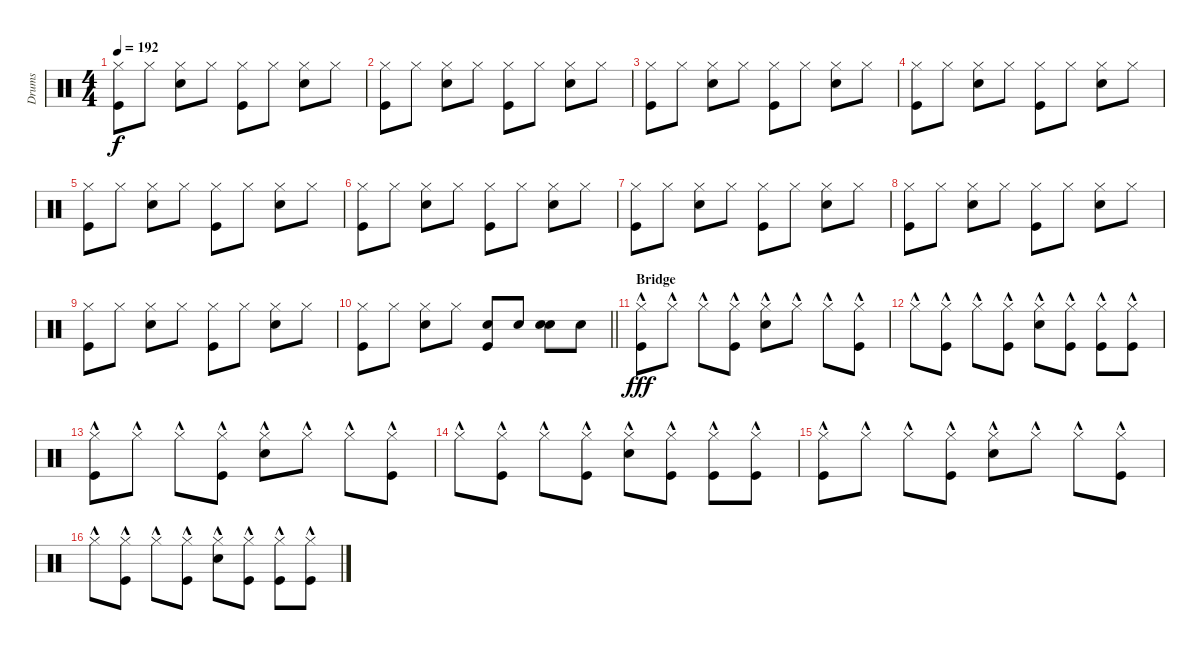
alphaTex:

\track ("Drums" "Drums") {instrument percussion}
\staff {score}
\articulation defaults
\ts (4 4)
\tempo 192
\clef neutral
\ks c
("Hi-Hat (closed)" "Kick (hit)").8{dy f} "Hi-Hat (closed)".8 ("Hi-Hat (closed)" "Snare (hit) 2").8 "Hi-Hat (closed)".8 ("Hi-Hat (closed)" "Kick (hit)").8 "Hi-Hat (closed)".8 ("Hi-Hat (closed)" "Snare (hit) 2").8 "Hi-Hat (closed)".8 |
("Hi-Hat (closed)" "Kick (hit)").8 "Hi-Hat (closed)".8 ("Hi-Hat (closed)" "Snare (hit) 2").8 "Hi-Hat (closed)".8 ("Hi-Hat (closed)" "Kick (hit)").8 "Hi-Hat (closed)".8 ("Hi-Hat (closed)" "Snare (hit) 2").8 "Hi-Hat (closed)".8 |
("Hi-Hat (closed)" "Kick (hit)").8 "Hi-Hat (closed)".8 ("Hi-Hat (closed)" "Snare (hit) 2").8 "Hi-Hat (closed)".8 ("Hi-Hat (closed)" "Kick (hit)").8 "Hi-Hat (closed)".8 ("Hi-Hat (closed)" "Snare (hit) 2").8 "Hi-Hat (closed)".8 |
("Hi-Hat (closed)" "Kick (hit)").8 "Hi-Hat (closed)".8 ("Hi-Hat (closed)" "Snare (hit) 2").8 "Hi-Hat (closed)".8 ("Hi-Hat (closed)" "Kick (hit)").8 "Hi-Hat (closed)".8 ("Hi-Hat (closed)" "Snare (hit) 2").8 "Hi-Hat (closed)".8 |
("Hi-Hat (closed)" "Kick (hit)").8 "Hi-Hat (closed)".8 ("Hi-Hat (closed)" "Snare (hit) 2").8 "Hi-Hat (closed)".8 ("Hi-Hat (closed)" "Kick (hit)").8 "Hi-Hat (closed)".8 ("Hi-Hat (closed)" "Snare (hit) 2").8 "Hi-Hat (closed)".8 |
("Hi-Hat (closed)" "Kick (hit)").8 "Hi-Hat (closed)".8 ("Hi-Hat (closed)" "Snare (hit) 2").8 "Hi-Hat (closed)".8 ("Hi-Hat (closed)" "Kick (hit)").8 "Hi-Hat (closed)".8 ("Hi-Hat (closed)" "Snare (hit) 2").8 "Hi-Hat (closed)".8 |
("Hi-Hat (closed)" "Kick (hit)").8 "Hi-Hat (closed)".8 ("Hi-Hat (closed)" "Snare (hit) 2").8 "Hi-Hat (closed)".8 ("Hi-Hat (closed)" "Kick (hit)").8 "Hi-Hat (closed)".8 ("Hi-Hat (closed)" "Snare (hit) 2").8 "Hi-Hat (closed)".8 |
("Hi-Hat (closed)" "Kick (hit)").8 "Hi-Hat (closed)".8 ("Hi-Hat (closed)" "Snare (hit) 2").8 "Hi-Hat (closed)".8 ("Hi-Hat (closed)" "Kick (hit)").8 "Hi-Hat (closed)".8 ("Hi-Hat (closed)" "Snare (hit) 2").8 "Hi-Hat (closed)".8 |
("Hi-Hat (closed)" "Kick (hit)").8 "Hi-Hat (closed)".8 ("Hi-Hat (closed)" "Snare (hit) 2").8 "Hi-Hat (closed)".8 ("Hi-Hat (closed)" "Kick (hit)").8 "Hi-Hat (closed)".8 ("Hi-Hat (closed)" "Snare (hit) 2").8 "Hi-Hat (closed)".8 |
\barLineRight lightlight
("Hi-Hat (closed)" "Kick (hit)").8 "Hi-Hat (closed)".8 ("Hi-Hat (closed)" "Snare (hit) 2").8 "Hi-Hat (closed)".8 ("Snare (hit) 2" "Kick (hit)").8 "Snare (hit) 2".8 ("Snare (hit) 2" "Snare (hit) 2").8 "Snare (hit) 2".8 |
\section ("" "Bridge")
("Kick (hit)"{hac} "Hi-Hat (closed)"{hac}).8{dy fff} "Hi-Hat (closed)"{hac}.8 "Hi-Hat (closed)"{hac}.8 ("Kick (hit)"{hac} "Hi-Hat (closed)"{hac}).8 ("Snare (hit) 2"{hac} "Hi-Hat (closed)"{hac}).8 "Hi-Hat (closed)"{hac}.8 "Hi-Hat (closed)"{hac}.8 ("Kick (hit)"{hac} "Hi-Hat (closed)"{hac}).8 |
"Hi-Hat (closed)"{hac}.8 ("Kick (hit)"{hac} "Hi-Hat (closed)"{hac}).8 "Hi-Hat (closed)"{hac}.8 ("Kick (hit)"{hac} "Hi-Hat (closed)"{hac}).8 ("Snare (hit) 2"{hac} "Hi-Hat (closed)"{hac}).8 ("Kick (hit)"{hac} "Hi-Hat (closed)"{hac}).8 ("Kick (hit)" "Hi-Hat (closed)"{hac}).8 ("Kick (hit)" "Hi-Hat (closed)"{hac}).8 |
("Kick (hit)"{hac} "Hi-Hat (closed)"{hac}).8 "Hi-Hat (closed)"{hac}.8 "Hi-Hat (closed)"{hac}.8 ("Kick (hit)"{hac} "Hi-Hat (closed)"{hac}).8 ("Snare (hit) 2"{hac} "Hi-Hat (closed)"{hac}).8 "Hi-Hat (closed)"{hac}.8 "Hi-Hat (closed)"{hac}.8 ("Kick (hit)"{hac} "Hi-Hat (closed)"{hac}).8 |
"Hi-Hat (closed)"{hac}.8 ("Kick (hit)"{hac} "Hi-Hat (closed)"{hac}).8 "Hi-Hat (closed)"{hac}.8 ("Kick (hit)"{hac} "Hi-Hat (closed)"{hac}).8 ("Snare (hit) 2"{hac} "Hi-Hat (closed)"{hac}).8 ("Kick (hit)"{hac} "Hi-Hat (closed)"{hac}).8 ("Kick (hit)" "Hi-Hat (closed)"{hac}).8 ("Kick (hit)" "Hi-Hat (closed)"{hac}).8 |
("Kick (hit)"{hac} "Hi-Hat (closed)"{hac}).8 "Hi-Hat (closed)"{hac}.8 "Hi-Hat (closed)"{hac}.8 ("Kick (hit)"{hac} "Hi-Hat (closed)"{hac}).8 ("Snare (hit) 2"{hac} "Hi-Hat (closed)"{hac}).8 "Hi-Hat (closed)"{hac}.8 "Hi-Hat (closed)"{hac}.8 ("Kick (hit)"{hac} "Hi-Hat (closed)"{hac}).8 |
"Hi-Hat (closed)"{hac}.8 ("Kick (hit)"{hac} "Hi-Hat (closed)"{hac}).8 "Hi-Hat (closed)"{hac}.8 ("Kick (hit)"{hac} "Hi-Hat (closed)"{hac}).8 ("Snare (hit) 2"{hac} "Hi-Hat (closed)"{hac}).8 ("Kick (hit)"{hac} "Hi-Hat (closed)"{hac}).8 ("Kick (hit)" "Hi-Hat (closed)"{hac}).8 ("Kick (hit)" "Hi-Hat (closed)"{hac}).8
